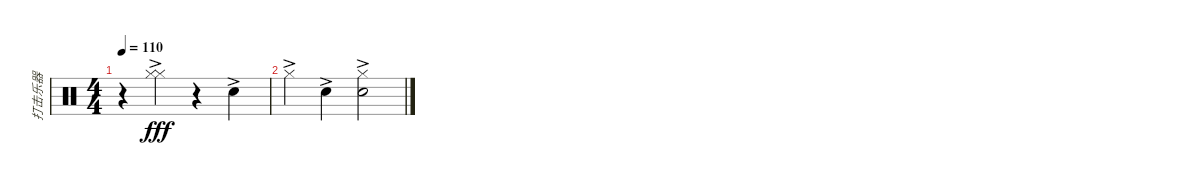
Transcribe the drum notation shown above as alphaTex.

\track ("打击乐器" "打击乐器") {instrument percussion}
\staff {score}
\articulation defaults
\ts (4 4)
\tempo 110
\clef neutral
\ks c
r.4{dy fff} ("Hi-Hat (closed)"{ac} "Hi-Hat (closed)"{ac}).4 r.4 "Hand Clap (hit)"{ac}.4 |
"Hi-Hat (closed)"{ac}.4 "Hand Clap (hit)"{ac}.4 ("Hand Clap (hit)"{ac} "Hi-Hat (closed)"{ac}).2
